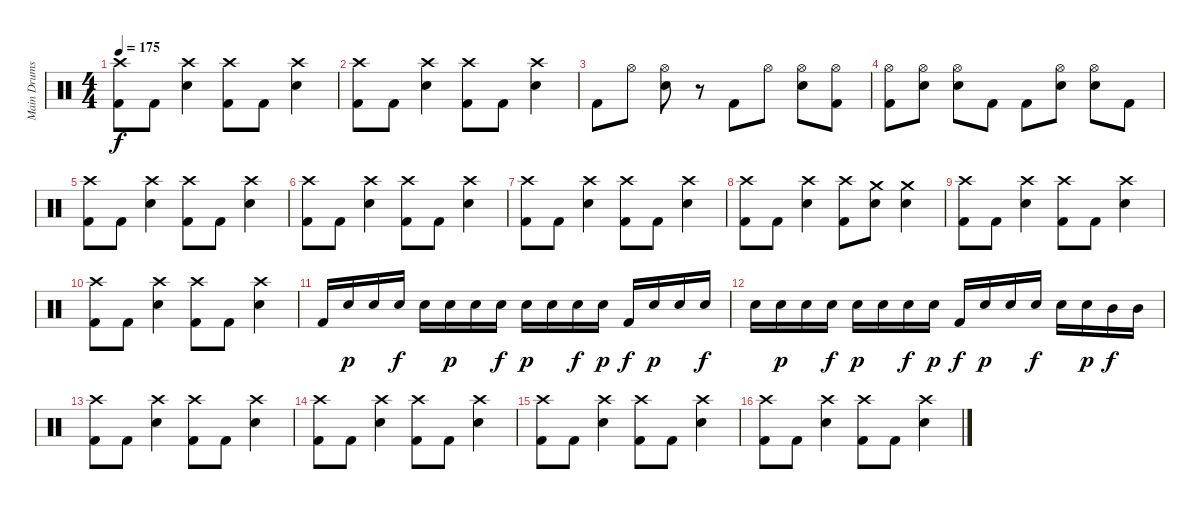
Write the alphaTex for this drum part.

\track ("Main Drums" "Main Drums") {instrument percussion}
\staff {score}
\articulation defaults
\ts (4 4)
\tempo 175
\clef neutral
\ks c
("Crash high (hit)" "Kick (hit) 2").8{dy f} "Kick (hit) 2".8 ("Crash high (hit)" "Electric Snare (hit)").4 ("Crash high (hit)" "Kick (hit) 2").8 "Kick (hit) 2".8 ("Crash high (hit)" "Electric Snare (hit)").4 |
("Crash high (hit)" "Kick (hit) 2").8 "Kick (hit) 2".8 ("Crash high (hit)" "Electric Snare (hit)").4 ("Crash high (hit)" "Kick (hit) 2").8 "Kick (hit) 2".8 ("Crash high (hit)" "Electric Snare (hit)").4 |
"Kick (hit) 2".8 "Hi-Hat (open)".8 ("Hi-Hat (open)" "Electric Snare (hit)").8 r.8 "Kick (hit) 2".8 "Hi-Hat (open)".8 ("Hi-Hat (open)" "Electric Snare (hit)").8 ("Hi-Hat (open)" "Kick (hit) 2").8 |
("Hi-Hat (open)" "Kick (hit) 2").8 ("Hi-Hat (open)" "Electric Snare (hit)").8 ("Hi-Hat (open)" "Electric Snare (hit)").8 "Kick (hit) 2".8 "Kick (hit) 2".8 ("Hi-Hat (open)" "Electric Snare (hit)").8 ("Hi-Hat (open)" "Electric Snare (hit)").8 "Kick (hit) 2".8 |
("Crash high (hit)" "Kick (hit) 2").8 "Kick (hit) 2".8 ("Crash high (hit)" "Electric Snare (hit)").4 ("Crash high (hit)" "Kick (hit) 2").8 "Kick (hit) 2".8 ("Crash high (hit)" "Electric Snare (hit)").4 |
("Crash high (hit)" "Kick (hit) 2").8 "Kick (hit) 2".8 ("Crash high (hit)" "Electric Snare (hit)").4 ("Crash high (hit)" "Kick (hit) 2").8 "Kick (hit) 2".8 ("Crash high (hit)" "Electric Snare (hit)").4 |
("Crash high (hit)" "Kick (hit) 2").8 "Kick (hit) 2".8 ("Crash high (hit)" "Electric Snare (hit)").4 ("Crash high (hit)" "Kick (hit) 2").8 "Kick (hit) 2".8 ("Crash high (hit)" "Electric Snare (hit)").4 |
("Crash high (hit)" "Kick (hit) 2").8 "Kick (hit) 2".8 ("Crash high (hit)" "Electric Snare (hit)").4 ("Crash high (hit)" "Kick (hit) 2").8 ("Crash medium (hit)" "Electric Snare (hit)").8 ("Crash medium (hit)" "Electric Snare (hit)").4 |
("Crash high (hit)" "Kick (hit) 2").8 "Kick (hit) 2".8 ("Crash high (hit)" "Electric Snare (hit)").4 ("Crash high (hit)" "Kick (hit) 2").8 "Kick (hit) 2".8 ("Crash high (hit)" "Electric Snare (hit)").4 |
("Crash high (hit)" "Kick (hit) 2").8 "Kick (hit) 2".8 ("Crash high (hit)" "Electric Snare (hit)").4 ("Crash high (hit)" "Kick (hit) 2").8 "Kick (hit) 2".8 ("Crash high (hit)" "Electric Snare (hit)").4 |
"Kick (hit) 2".16 "Electric Snare (hit)".16{dy p} "Electric Snare (hit)".16 "Electric Snare (hit)".16{dy f} "Electric Snare (hit)".16 "Electric Snare (hit)".16{dy p} "Electric Snare (hit)".16 "Electric Snare (hit)".16{dy f} "Electric Snare (hit)".16{dy p} "Electric Snare (hit)".16 "Electric Snare (hit)".16{dy f} "Electric Snare (hit)".16{dy p} "Kick (hit) 2".16{dy f} "Electric Snare (hit)".16{dy p} "Electric Snare (hit)".16 "Electric Snare (hit)".16{dy f} |
"Electric Snare (hit)".16 "Electric Snare (hit)".16{dy p} "Electric Snare (hit)".16 "Electric Snare (hit)".16{dy f} "Electric Snare (hit)".16{dy p} "Electric Snare (hit)".16 "Electric Snare (hit)".16{dy f} "Electric Snare (hit)".16{dy p} "Kick (hit) 2".16{dy f} "Electric Snare (hit)".16{dy p} "Electric Snare (hit)".16 "Electric Snare (hit)".16{dy f} "Electric Snare (hit)".16 "Electric Snare (hit)".16{dy p} "Mid Tom (hit)".16{dy f} "Mid Tom (hit)".16 |
("Crash high (hit)" "Kick (hit) 2").8 "Kick (hit) 2".8 ("Crash high (hit)" "Electric Snare (hit)").4 ("Crash high (hit)" "Kick (hit) 2").8 "Kick (hit) 2".8 ("Crash high (hit)" "Electric Snare (hit)").4 |
("Crash high (hit)" "Kick (hit) 2").8 "Kick (hit) 2".8 ("Crash high (hit)" "Electric Snare (hit)").4 ("Crash high (hit)" "Kick (hit) 2").8 "Kick (hit) 2".8 ("Crash high (hit)" "Electric Snare (hit)").4 |
("Crash high (hit)" "Kick (hit) 2").8 "Kick (hit) 2".8 ("Crash high (hit)" "Electric Snare (hit)").4 ("Crash high (hit)" "Kick (hit) 2").8 "Kick (hit) 2".8 ("Crash high (hit)" "Electric Snare (hit)").4 |
("Crash high (hit)" "Kick (hit) 2").8 "Kick (hit) 2".8 ("Crash high (hit)" "Electric Snare (hit)").4 ("Crash high (hit)" "Kick (hit) 2").8 "Kick (hit) 2".8 ("Crash high (hit)" "Electric Snare (hit)").4
